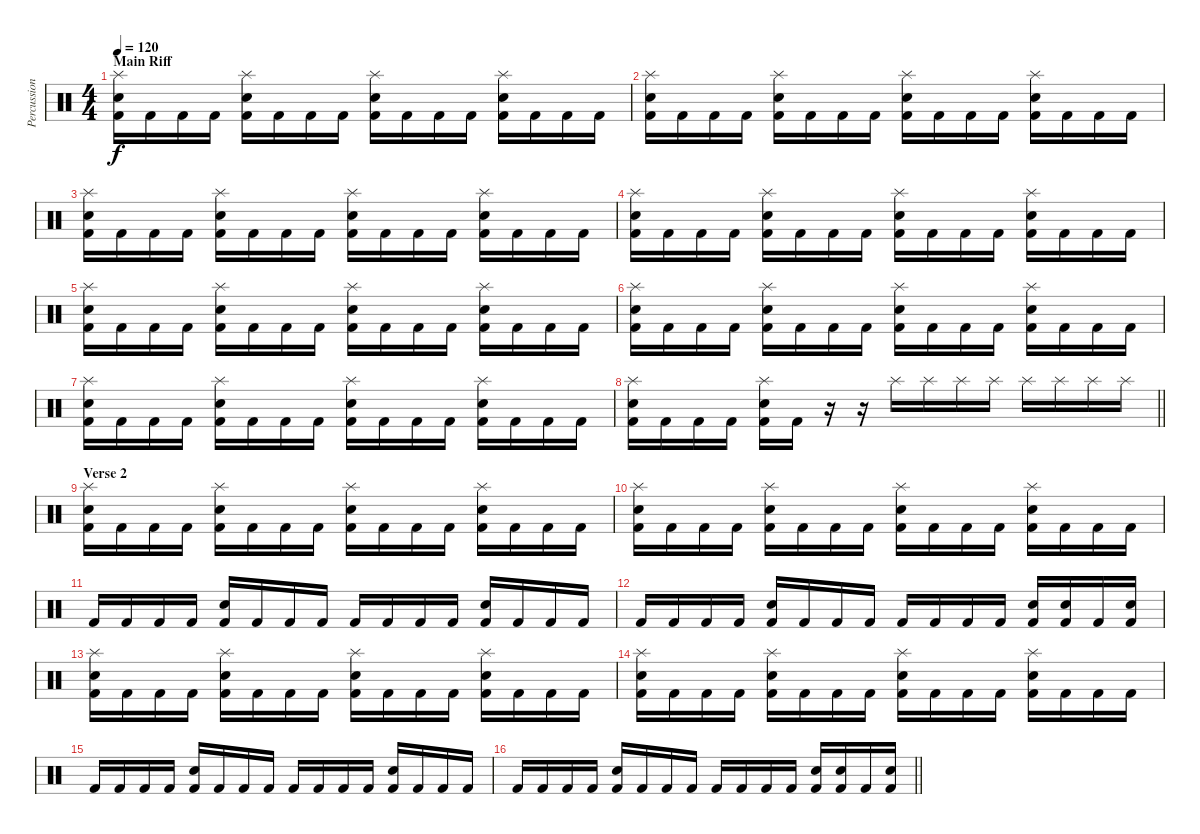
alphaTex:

\track ("Percussion" "Percussion") {instrument percussion}
\staff {score}
\articulation defaults
\ts (4 4)
\section ("" "Main Riff")
\tempo 120
\clef neutral
\ks c
("Splash (hit)" "Electric Snare (hit)" "Kick (hit) 2").16{dy f} "Kick (hit) 2".16 "Kick (hit) 2".16 "Kick (hit) 2".16 ("Splash (hit)" "Electric Snare (hit)" "Kick (hit) 2").16 "Kick (hit) 2".16 "Kick (hit) 2".16 "Kick (hit) 2".16 ("Splash (hit)" "Electric Snare (hit)" "Kick (hit) 2").16 "Kick (hit) 2".16 "Kick (hit) 2".16 "Kick (hit) 2".16 ("Splash (hit)" "Electric Snare (hit)" "Kick (hit) 2").16 "Kick (hit) 2".16 "Kick (hit) 2".16 "Kick (hit) 2".16 |
("Splash (hit)" "Electric Snare (hit)" "Kick (hit) 2").16 "Kick (hit) 2".16 "Kick (hit) 2".16 "Kick (hit) 2".16 ("Splash (hit)" "Electric Snare (hit)" "Kick (hit) 2").16 "Kick (hit) 2".16 "Kick (hit) 2".16 "Kick (hit) 2".16 ("Splash (hit)" "Electric Snare (hit)" "Kick (hit) 2").16 "Kick (hit) 2".16 "Kick (hit) 2".16 "Kick (hit) 2".16 ("Splash (hit)" "Electric Snare (hit)" "Kick (hit) 2").16 "Kick (hit) 2".16 "Kick (hit) 2".16 "Kick (hit) 2".16 |
("Splash (hit)" "Electric Snare (hit)" "Kick (hit) 2").16 "Kick (hit) 2".16 "Kick (hit) 2".16 "Kick (hit) 2".16 ("Splash (hit)" "Electric Snare (hit)" "Kick (hit) 2").16 "Kick (hit) 2".16 "Kick (hit) 2".16 "Kick (hit) 2".16 ("Splash (hit)" "Electric Snare (hit)" "Kick (hit) 2").16 "Kick (hit) 2".16 "Kick (hit) 2".16 "Kick (hit) 2".16 ("Splash (hit)" "Electric Snare (hit)" "Kick (hit) 2").16 "Kick (hit) 2".16 "Kick (hit) 2".16 "Kick (hit) 2".16 |
("Splash (hit)" "Electric Snare (hit)" "Kick (hit) 2").16 "Kick (hit) 2".16 "Kick (hit) 2".16 "Kick (hit) 2".16 ("Splash (hit)" "Electric Snare (hit)" "Kick (hit) 2").16 "Kick (hit) 2".16 "Kick (hit) 2".16 "Kick (hit) 2".16 ("Splash (hit)" "Electric Snare (hit)" "Kick (hit) 2").16 "Kick (hit) 2".16 "Kick (hit) 2".16 "Kick (hit) 2".16 ("Splash (hit)" "Electric Snare (hit)" "Kick (hit) 2").16 "Kick (hit) 2".16 "Kick (hit) 2".16 "Kick (hit) 2".16 |
("Splash (hit)" "Electric Snare (hit)" "Kick (hit) 2").16 "Kick (hit) 2".16 "Kick (hit) 2".16 "Kick (hit) 2".16 ("Splash (hit)" "Electric Snare (hit)" "Kick (hit) 2").16 "Kick (hit) 2".16 "Kick (hit) 2".16 "Kick (hit) 2".16 ("Splash (hit)" "Electric Snare (hit)" "Kick (hit) 2").16 "Kick (hit) 2".16 "Kick (hit) 2".16 "Kick (hit) 2".16 ("Splash (hit)" "Electric Snare (hit)" "Kick (hit) 2").16 "Kick (hit) 2".16 "Kick (hit) 2".16 "Kick (hit) 2".16 |
("Splash (hit)" "Electric Snare (hit)" "Kick (hit) 2").16 "Kick (hit) 2".16 "Kick (hit) 2".16 "Kick (hit) 2".16 ("Splash (hit)" "Electric Snare (hit)" "Kick (hit) 2").16 "Kick (hit) 2".16 "Kick (hit) 2".16 "Kick (hit) 2".16 ("Splash (hit)" "Electric Snare (hit)" "Kick (hit) 2").16 "Kick (hit) 2".16 "Kick (hit) 2".16 "Kick (hit) 2".16 ("Splash (hit)" "Electric Snare (hit)" "Kick (hit) 2").16 "Kick (hit) 2".16 "Kick (hit) 2".16 "Kick (hit) 2".16 |
("Splash (hit)" "Electric Snare (hit)" "Kick (hit) 2").16 "Kick (hit) 2".16 "Kick (hit) 2".16 "Kick (hit) 2".16 ("Splash (hit)" "Electric Snare (hit)" "Kick (hit) 2").16 "Kick (hit) 2".16 "Kick (hit) 2".16 "Kick (hit) 2".16 ("Splash (hit)" "Electric Snare (hit)" "Kick (hit) 2").16 "Kick (hit) 2".16 "Kick (hit) 2".16 "Kick (hit) 2".16 ("Splash (hit)" "Electric Snare (hit)" "Kick (hit) 2").16 "Kick (hit) 2".16 "Kick (hit) 2".16 "Kick (hit) 2".16 |
\barLineRight lightlight
("Splash (hit)" "Electric Snare (hit)" "Kick (hit) 2").16 "Kick (hit) 2".16 "Kick (hit) 2".16 "Kick (hit) 2".16 ("Splash (hit)" "Electric Snare (hit)" "Kick (hit) 2").16 "Kick (hit) 2".16 r.16 r.16 "Splash (hit)".16 "Splash (hit)".16 "Splash (hit)".16 "Splash (hit)".16 "Splash (hit)".16 "Splash (hit)".16 "Splash (hit)".16 "Splash (hit)".16 |
\section ("" "Verse 2")
("Splash (hit)" "Electric Snare (hit)" "Kick (hit) 2").16 "Kick (hit) 2".16 "Kick (hit) 2".16 "Kick (hit) 2".16 ("Splash (hit)" "Electric Snare (hit)" "Kick (hit) 2").16 "Kick (hit) 2".16 "Kick (hit) 2".16 "Kick (hit) 2".16 ("Splash (hit)" "Electric Snare (hit)" "Kick (hit) 2").16 "Kick (hit) 2".16 "Kick (hit) 2".16 "Kick (hit) 2".16 ("Splash (hit)" "Electric Snare (hit)" "Kick (hit) 2").16 "Kick (hit) 2".16 "Kick (hit) 2".16 "Kick (hit) 2".16 |
("Splash (hit)" "Electric Snare (hit)" "Kick (hit) 2").16 "Kick (hit) 2".16 "Kick (hit) 2".16 "Kick (hit) 2".16 ("Splash (hit)" "Electric Snare (hit)" "Kick (hit) 2").16 "Kick (hit) 2".16 "Kick (hit) 2".16 "Kick (hit) 2".16 ("Splash (hit)" "Electric Snare (hit)" "Kick (hit) 2").16 "Kick (hit) 2".16 "Kick (hit) 2".16 "Kick (hit) 2".16 ("Splash (hit)" "Electric Snare (hit)" "Kick (hit) 2").16 "Kick (hit) 2".16 "Kick (hit) 2".16 "Kick (hit) 2".16 |
"Kick (hit) 2".16 "Kick (hit) 2".16 "Kick (hit) 2".16 "Kick (hit) 2".16 ("Electric Snare (hit)" "Kick (hit) 2").16 "Kick (hit) 2".16 "Kick (hit) 2".16 "Kick (hit) 2".16 "Kick (hit) 2".16 "Kick (hit) 2".16 "Kick (hit) 2".16 "Kick (hit) 2".16 ("Electric Snare (hit)" "Kick (hit) 2").16 "Kick (hit) 2".16 "Kick (hit) 2".16 "Kick (hit) 2".16 |
"Kick (hit) 2".16 "Kick (hit) 2".16 "Kick (hit) 2".16 "Kick (hit) 2".16 ("Electric Snare (hit)" "Kick (hit) 2").16 "Kick (hit) 2".16 "Kick (hit) 2".16 "Kick (hit) 2".16 "Kick (hit) 2".16 "Kick (hit) 2".16 "Kick (hit) 2".16 "Kick (hit) 2".16 ("Electric Snare (hit)" "Kick (hit) 2").16 ("Electric Snare (hit)" "Kick (hit) 2").16 "Kick (hit) 2".16 ("Electric Snare (hit)" "Kick (hit) 2").16 |
("Splash (hit)" "Electric Snare (hit)" "Kick (hit) 2").16 "Kick (hit) 2".16 "Kick (hit) 2".16 "Kick (hit) 2".16 ("Splash (hit)" "Electric Snare (hit)" "Kick (hit) 2").16 "Kick (hit) 2".16 "Kick (hit) 2".16 "Kick (hit) 2".16 ("Splash (hit)" "Electric Snare (hit)" "Kick (hit) 2").16 "Kick (hit) 2".16 "Kick (hit) 2".16 "Kick (hit) 2".16 ("Splash (hit)" "Electric Snare (hit)" "Kick (hit) 2").16 "Kick (hit) 2".16 "Kick (hit) 2".16 "Kick (hit) 2".16 |
("Splash (hit)" "Electric Snare (hit)" "Kick (hit) 2").16 "Kick (hit) 2".16 "Kick (hit) 2".16 "Kick (hit) 2".16 ("Splash (hit)" "Electric Snare (hit)" "Kick (hit) 2").16 "Kick (hit) 2".16 "Kick (hit) 2".16 "Kick (hit) 2".16 ("Splash (hit)" "Electric Snare (hit)" "Kick (hit) 2").16 "Kick (hit) 2".16 "Kick (hit) 2".16 "Kick (hit) 2".16 ("Splash (hit)" "Electric Snare (hit)" "Kick (hit) 2").16 "Kick (hit) 2".16 "Kick (hit) 2".16 "Kick (hit) 2".16 |
"Kick (hit) 2".16 "Kick (hit) 2".16 "Kick (hit) 2".16 "Kick (hit) 2".16 ("Electric Snare (hit)" "Kick (hit) 2").16 "Kick (hit) 2".16 "Kick (hit) 2".16 "Kick (hit) 2".16 "Kick (hit) 2".16 "Kick (hit) 2".16 "Kick (hit) 2".16 "Kick (hit) 2".16 ("Electric Snare (hit)" "Kick (hit) 2").16 "Kick (hit) 2".16 "Kick (hit) 2".16 "Kick (hit) 2".16 |
\barLineRight lightlight "Kick (hit) 2".16 "Kick (hit) 2".16 "Kick (hit) 2".16 "Kick (hit) 2".16
("Electric Snare (hit)" "Kick (hit) 2").16 "Kick (hit) 2".16 "Kick (hit) 2".16 "Kick (hit) 2".16 "Kick (hit) 2".16 "Kick (hit) 2".16 "Kick (hit) 2".16 "Kick (hit) 2".16 ("Electric Snare (hit)" "Kick (hit) 2").16 ("Electric Snare (hit)" "Kick (hit) 2").16 "Kick (hit) 2".16 ("Electric Snare (hit)" "Kick (hit) 2").16
